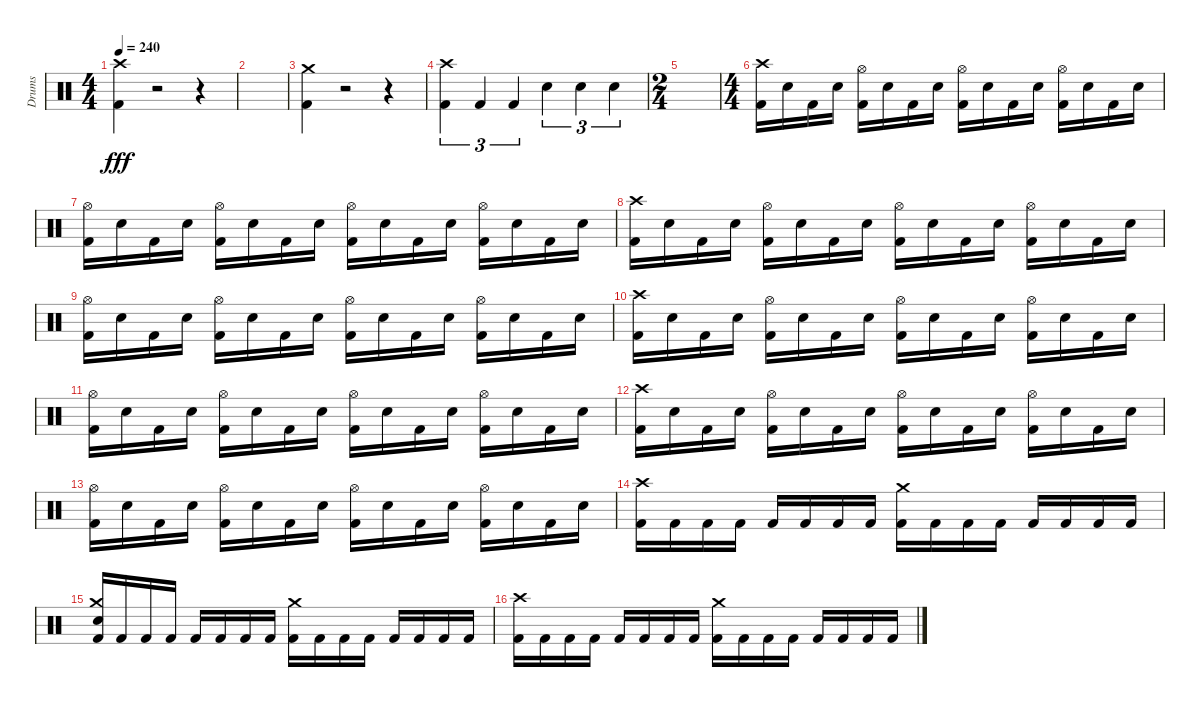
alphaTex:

\track ("Drums" "Drums") {instrument percussion}
\staff {score}
\articulation defaults
\ts (4 4)
\tempo 240
\clef neutral
\ks c
("Crash high (hit)" "Kick (hit) 2").4{dy fff} r.2 r.4 |
|
("Crash medium (hit)" "Kick (hit) 2").4 r.2 r.4 |
("Crash high (hit)" "Kick (hit) 2").4{tu (3 2)} "Kick (hit) 2".4{tu (3 2)} "Kick (hit) 2".4{tu (3 2)} "Electric Snare (hit)".4{tu (3 2)} "Electric Snare (hit)".4{tu (3 2)} "Electric Snare (hit)".4{tu (3 2)} |
\ts (2 4)
|
\ts (4 4)
("Crash high (hit)" "Kick (hit) 2").16 "Electric Snare (hit)".16 "Kick (hit) 2".16 "Electric Snare (hit)".16 ("Hi-Hat (open)" "Kick (hit) 2").16 "Electric Snare (hit)".16 "Kick (hit) 2".16 "Electric Snare (hit)".16 ("Hi-Hat (open)" "Kick (hit) 2").16 "Electric Snare (hit)".16 "Kick (hit) 2".16 "Electric Snare (hit)".16 ("Hi-Hat (open)" "Kick (hit) 2").16 "Electric Snare (hit)".16 "Kick (hit) 2".16 "Electric Snare (hit)".16 |
("Hi-Hat (open)" "Kick (hit) 2").16 "Electric Snare (hit)".16 "Kick (hit) 2".16 "Electric Snare (hit)".16 ("Hi-Hat (open)" "Kick (hit) 2").16 "Electric Snare (hit)".16 "Kick (hit) 2".16 "Electric Snare (hit)".16 ("Hi-Hat (open)" "Kick (hit) 2").16 "Electric Snare (hit)".16 "Kick (hit) 2".16 "Electric Snare (hit)".16 ("Hi-Hat (open)" "Kick (hit) 2").16 "Electric Snare (hit)".16 "Kick (hit) 2".16 "Electric Snare (hit)".16 |
("Crash high (hit)" "Kick (hit) 2").16 "Electric Snare (hit)".16 "Kick (hit) 2".16 "Electric Snare (hit)".16 ("Hi-Hat (open)" "Kick (hit) 2").16 "Electric Snare (hit)".16 "Kick (hit) 2".16 "Electric Snare (hit)".16 ("Hi-Hat (open)" "Kick (hit) 2").16 "Electric Snare (hit)".16 "Kick (hit) 2".16 "Electric Snare (hit)".16 ("Hi-Hat (open)" "Kick (hit) 2").16 "Electric Snare (hit)".16 "Kick (hit) 2".16 "Electric Snare (hit)".16 |
("Hi-Hat (open)" "Kick (hit) 2").16 "Electric Snare (hit)".16 "Kick (hit) 2".16 "Electric Snare (hit)".16 ("Hi-Hat (open)" "Kick (hit) 2").16 "Electric Snare (hit)".16 "Kick (hit) 2".16 "Electric Snare (hit)".16 ("Hi-Hat (open)" "Kick (hit) 2").16 "Electric Snare (hit)".16 "Kick (hit) 2".16 "Electric Snare (hit)".16 ("Hi-Hat (open)" "Kick (hit) 2").16 "Electric Snare (hit)".16 "Kick (hit) 2".16 "Electric Snare (hit)".16 |
("Crash high (hit)" "Kick (hit) 2").16 "Electric Snare (hit)".16 "Kick (hit) 2".16 "Electric Snare (hit)".16 ("Hi-Hat (open)" "Kick (hit) 2").16 "Electric Snare (hit)".16 "Kick (hit) 2".16 "Electric Snare (hit)".16 ("Hi-Hat (open)" "Kick (hit) 2").16 "Electric Snare (hit)".16 "Kick (hit) 2".16 "Electric Snare (hit)".16 ("Hi-Hat (open)" "Kick (hit) 2").16 "Electric Snare (hit)".16 "Kick (hit) 2".16 "Electric Snare (hit)".16 |
("Hi-Hat (open)" "Kick (hit) 2").16 "Electric Snare (hit)".16 "Kick (hit) 2".16 "Electric Snare (hit)".16 ("Hi-Hat (open)" "Kick (hit) 2").16 "Electric Snare (hit)".16 "Kick (hit) 2".16 "Electric Snare (hit)".16 ("Hi-Hat (open)" "Kick (hit) 2").16 "Electric Snare (hit)".16 "Kick (hit) 2".16 "Electric Snare (hit)".16 ("Hi-Hat (open)" "Kick (hit) 2").16 "Electric Snare (hit)".16 "Kick (hit) 2".16 "Electric Snare (hit)".16 |
("Crash high (hit)" "Kick (hit) 2").16 "Electric Snare (hit)".16 "Kick (hit) 2".16 "Electric Snare (hit)".16 ("Hi-Hat (open)" "Kick (hit) 2").16 "Electric Snare (hit)".16 "Kick (hit) 2".16 "Electric Snare (hit)".16 ("Hi-Hat (open)" "Kick (hit) 2").16 "Electric Snare (hit)".16 "Kick (hit) 2".16 "Electric Snare (hit)".16 ("Hi-Hat (open)" "Kick (hit) 2").16 "Electric Snare (hit)".16 "Kick (hit) 2".16 "Electric Snare (hit)".16 |
("Hi-Hat (open)" "Kick (hit) 2").16 "Electric Snare (hit)".16 "Kick (hit) 2".16 "Electric Snare (hit)".16 ("Hi-Hat (open)" "Kick (hit) 2").16 "Electric Snare (hit)".16 "Kick (hit) 2".16 "Electric Snare (hit)".16 ("Hi-Hat (open)" "Kick (hit) 2").16 "Electric Snare (hit)".16 "Kick (hit) 2".16 "Electric Snare (hit)".16 ("Hi-Hat (open)" "Kick (hit) 2").16 "Electric Snare (hit)".16 "Kick (hit) 2".16 "Electric Snare (hit)".16 |
("Crash high (hit)" "Kick (hit) 2").16 "Kick (hit) 2".16 "Kick (hit) 2".16 "Kick (hit) 2".16 "Kick (hit) 2".16 "Kick (hit) 2".16 "Kick (hit) 2".16 "Kick (hit) 2".16 ("Crash medium (hit)" "Kick (hit) 2").16 "Kick (hit) 2".16 "Kick (hit) 2".16 "Kick (hit) 2".16 "Kick (hit) 2".16 "Kick (hit) 2".16 "Kick (hit) 2".16 "Kick (hit) 2".16 |
("Crash medium (hit)" "Electric Snare (hit)" "Kick (hit) 2").16 "Kick (hit) 2".16 "Kick (hit) 2".16 "Kick (hit) 2".16 "Kick (hit) 2".16 "Kick (hit) 2".16 "Kick (hit) 2".16 "Kick (hit) 2".16 ("Crash medium (hit)" "Kick (hit) 2").16 "Kick (hit) 2".16 "Kick (hit) 2".16 "Kick (hit) 2".16 "Kick (hit) 2".16 "Kick (hit) 2".16 "Kick (hit) 2".16 "Kick (hit) 2".16 |
("Crash high (hit)" "Kick (hit) 2").16 "Kick (hit) 2".16 "Kick (hit) 2".16 "Kick (hit) 2".16 "Kick (hit) 2".16 "Kick (hit) 2".16 "Kick (hit) 2".16 "Kick (hit) 2".16 ("Crash medium (hit)" "Kick (hit) 2").16 "Kick (hit) 2".16 "Kick (hit) 2".16 "Kick (hit) 2".16 "Kick (hit) 2".16 "Kick (hit) 2".16 "Kick (hit) 2".16 "Kick (hit) 2".16
